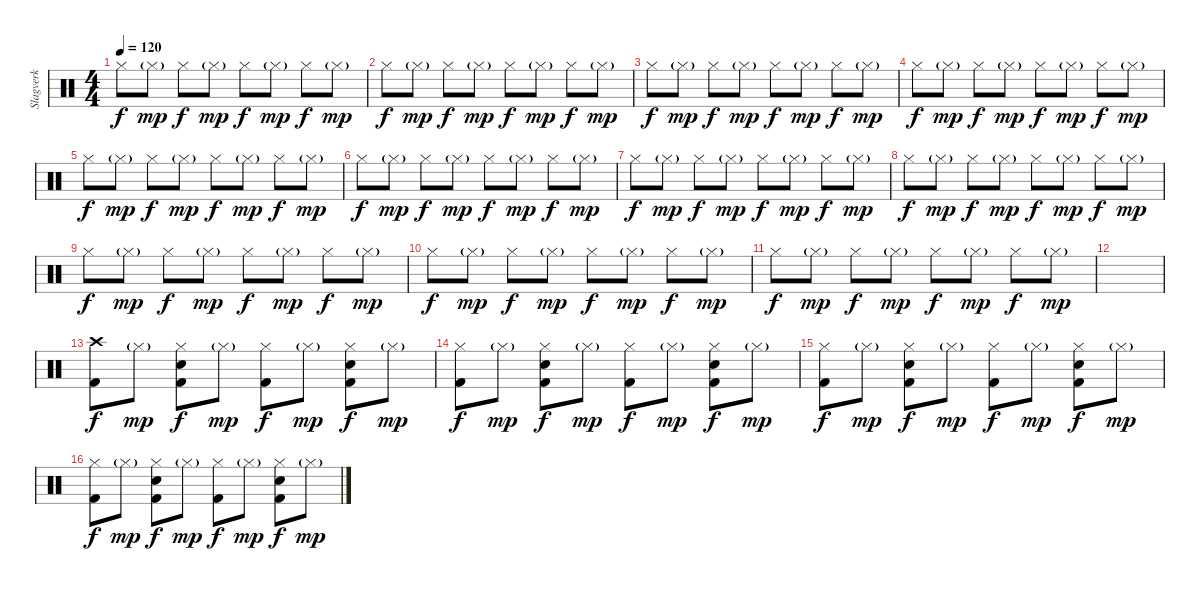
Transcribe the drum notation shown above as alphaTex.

\track ("Slagverk" "Slagverk") {instrument percussion}
\staff {score}
\articulation defaults
\ts (4 4)
\tempo 120
\clef neutral
\ks c "Hi-Hat (closed)".8{dy f} "Hi-Hat (closed)"{g}.8{dy mp} "Hi-Hat (closed)".8{dy f} "Hi-Hat (closed)"{g}.8{dy mp} "Hi-Hat (closed)".8{dy f} "Hi-Hat (closed)"{g}.8{dy mp} "Hi-Hat (closed)".8{dy f} "Hi-Hat (closed)"{g}.8{dy mp}
|
"Hi-Hat (closed)".8{dy f} "Hi-Hat (closed)"{g}.8{dy mp} "Hi-Hat (closed)".8{dy f} "Hi-Hat (closed)"{g}.8{dy mp} "Hi-Hat (closed)".8{dy f} "Hi-Hat (closed)"{g}.8{dy mp} "Hi-Hat (closed)".8{dy f} "Hi-Hat (closed)"{g}.8{dy mp} |
"Hi-Hat (closed)".8{dy f} "Hi-Hat (closed)"{g}.8{dy mp} "Hi-Hat (closed)".8{dy f} "Hi-Hat (closed)"{g}.8{dy mp} "Hi-Hat (closed)".8{dy f} "Hi-Hat (closed)"{g}.8{dy mp} "Hi-Hat (closed)".8{dy f} "Hi-Hat (closed)"{g}.8{dy mp} |
"Hi-Hat (closed)".8{dy f} "Hi-Hat (closed)"{g}.8{dy mp} "Hi-Hat (closed)".8{dy f} "Hi-Hat (closed)"{g}.8{dy mp} "Hi-Hat (closed)".8{dy f} "Hi-Hat (closed)"{g}.8{dy mp} "Hi-Hat (closed)".8{dy f} "Hi-Hat (closed)"{g}.8{dy mp} |
"Hi-Hat (closed)".8{dy f} "Hi-Hat (closed)"{g}.8{dy mp} "Hi-Hat (closed)".8{dy f} "Hi-Hat (closed)"{g}.8{dy mp} "Hi-Hat (closed)".8{dy f} "Hi-Hat (closed)"{g}.8{dy mp} "Hi-Hat (closed)".8{dy f} "Hi-Hat (closed)"{g}.8{dy mp} |
"Hi-Hat (closed)".8{dy f} "Hi-Hat (closed)"{g}.8{dy mp} "Hi-Hat (closed)".8{dy f} "Hi-Hat (closed)"{g}.8{dy mp} "Hi-Hat (closed)".8{dy f} "Hi-Hat (closed)"{g}.8{dy mp} "Hi-Hat (closed)".8{dy f} "Hi-Hat (closed)"{g}.8{dy mp} |
"Hi-Hat (closed)".8{dy f} "Hi-Hat (closed)"{g}.8{dy mp} "Hi-Hat (closed)".8{dy f} "Hi-Hat (closed)"{g}.8{dy mp} "Hi-Hat (closed)".8{dy f} "Hi-Hat (closed)"{g}.8{dy mp} "Hi-Hat (closed)".8{dy f} "Hi-Hat (closed)"{g}.8{dy mp} |
"Hi-Hat (closed)".8{dy f} "Hi-Hat (closed)"{g}.8{dy mp} "Hi-Hat (closed)".8{dy f} "Hi-Hat (closed)"{g}.8{dy mp} "Hi-Hat (closed)".8{dy f} "Hi-Hat (closed)"{g}.8{dy mp} "Hi-Hat (closed)".8{dy f} "Hi-Hat (closed)"{g}.8{dy mp} |
"Hi-Hat (closed)".8{dy f} "Hi-Hat (closed)"{g}.8{dy mp} "Hi-Hat (closed)".8{dy f} "Hi-Hat (closed)"{g}.8{dy mp} "Hi-Hat (closed)".8{dy f} "Hi-Hat (closed)"{g}.8{dy mp} "Hi-Hat (closed)".8{dy f} "Hi-Hat (closed)"{g}.8{dy mp} |
"Hi-Hat (closed)".8{dy f} "Hi-Hat (closed)"{g}.8{dy mp} "Hi-Hat (closed)".8{dy f} "Hi-Hat (closed)"{g}.8{dy mp} "Hi-Hat (closed)".8{dy f} "Hi-Hat (closed)"{g}.8{dy mp} "Hi-Hat (closed)".8{dy f} "Hi-Hat (closed)"{g}.8{dy mp} |
"Hi-Hat (closed)".8{dy f} "Hi-Hat (closed)"{g}.8{dy mp} "Hi-Hat (closed)".8{dy f} "Hi-Hat (closed)"{g}.8{dy mp} "Hi-Hat (closed)".8{dy f} "Hi-Hat (closed)"{g}.8{dy mp} "Hi-Hat (closed)".8{dy f} "Hi-Hat (closed)"{g}.8{dy mp} |
|
("Kick (hit) 2" "Crash high (hit)").8{dy f} "Hi-Hat (closed)"{g}.8{dy mp} ("Kick (hit) 2" "Hi-Hat (closed)" "Snare (hit) 2").8{dy f} "Hi-Hat (closed)"{g}.8{dy mp} ("Kick (hit) 2" "Hi-Hat (closed)").8{dy f} "Hi-Hat (closed)"{g}.8{dy mp} ("Kick (hit) 2" "Hi-Hat (closed)" "Snare (hit) 2").8{dy f} "Hi-Hat (closed)"{g}.8{dy mp} |
("Kick (hit) 2" "Hi-Hat (closed)").8{dy f} "Hi-Hat (closed)"{g}.8{dy mp} ("Kick (hit) 2" "Hi-Hat (closed)" "Snare (hit) 2").8{dy f} "Hi-Hat (closed)"{g}.8{dy mp} ("Kick (hit) 2" "Hi-Hat (closed)").8{dy f} "Hi-Hat (closed)"{g}.8{dy mp} ("Kick (hit) 2" "Hi-Hat (closed)" "Snare (hit) 2").8{dy f} "Hi-Hat (closed)"{g}.8{dy mp} |
("Kick (hit) 2" "Hi-Hat (closed)").8{dy f} "Hi-Hat (closed)"{g}.8{dy mp} ("Kick (hit) 2" "Hi-Hat (closed)" "Snare (hit) 2").8{dy f} "Hi-Hat (closed)"{g}.8{dy mp} ("Kick (hit) 2" "Hi-Hat (closed)").8{dy f} "Hi-Hat (closed)"{g}.8{dy mp} ("Kick (hit) 2" "Hi-Hat (closed)" "Snare (hit) 2").8{dy f} "Hi-Hat (closed)"{g}.8{dy mp} |
("Kick (hit) 2" "Hi-Hat (closed)").8{dy f} "Hi-Hat (closed)"{g}.8{dy mp} ("Kick (hit) 2" "Hi-Hat (closed)" "Snare (hit) 2").8{dy f} "Hi-Hat (closed)"{g}.8{dy mp} ("Kick (hit) 2" "Hi-Hat (closed)").8{dy f} "Hi-Hat (closed)"{g}.8{dy mp} ("Kick (hit) 2" "Hi-Hat (closed)" "Snare (hit) 2").8{dy f} "Hi-Hat (closed)"{g}.8{dy mp}
